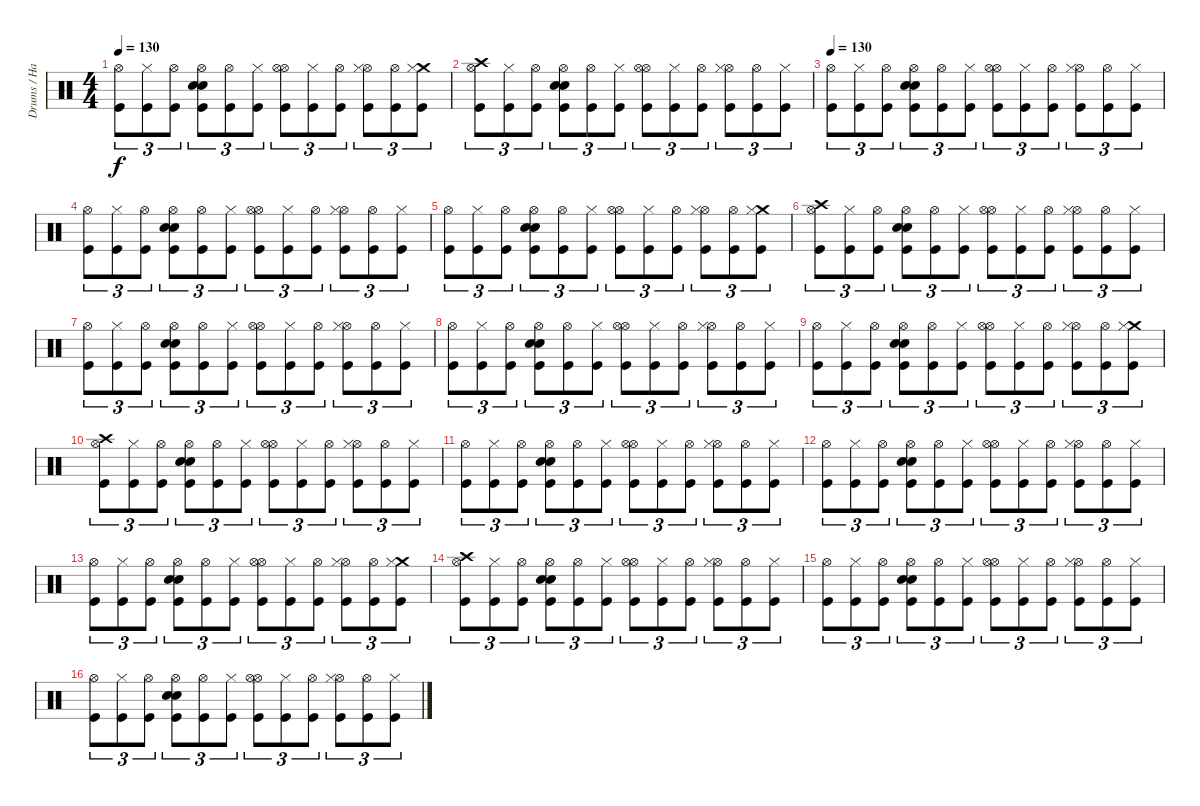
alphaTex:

\track ("Drums / Hammer of God" "Drums / Ha") {instrument percussion}
\staff {score}
\articulation defaults
\ts (4 4)
\tempo 130
\clef neutral
\ks c
("Hi-Hat (open)" "Kick (hit)").8{tu (3 2) dy f} ("Hi-Hat (closed)" "Kick (hit)").8{tu (3 2)} ("Hi-Hat (open)" "Kick (hit)").8{tu (3 2)} ("Snare (hit) 2" "Hi-Hat (open)" "Snare (hit) 2" "Kick (hit)").8{tu (3 2)} ("Hi-Hat (open)" "Kick (hit)").8{tu (3 2)} ("Hi-Hat (closed)" "Kick (hit)").8{tu (3 2)} ("Hi-Hat (open)" "Hi-Hat (open)" "Kick (hit)").8{tu (3 2)} ("Hi-Hat (closed)" "Kick (hit)").8{tu (3 2)} ("Hi-Hat (open)" "Kick (hit)").8{tu (3 2)} ("Hi-Hat (open)" "Hi-Hat (closed)" "Kick (hit)").8{tu (3 2)} ("Hi-Hat (open)" "Kick (hit)").8{tu (3 2)} ("Crash medium (hit)" "Hi-Hat (closed)" "Kick (hit)").8{tu (3 2)} |
("Crash high (hit)" "Hi-Hat (open)" "Kick (hit)").8{tu (3 2)} ("Hi-Hat (closed)" "Kick (hit)").8{tu (3 2)} ("Hi-Hat (open)" "Kick (hit)").8{tu (3 2)} ("Snare (hit) 2" "Hi-Hat (open)" "Snare (hit) 2" "Kick (hit)").8{tu (3 2)} ("Hi-Hat (open)" "Kick (hit)").8{tu (3 2)} ("Hi-Hat (closed)" "Kick (hit)").8{tu (3 2)} ("Hi-Hat (open)" "Hi-Hat (open)" "Kick (hit)").8{tu (3 2)} ("Hi-Hat (closed)" "Kick (hit)").8{tu (3 2)} ("Hi-Hat (open)" "Kick (hit)").8{tu (3 2)} ("Hi-Hat (open)" "Hi-Hat (closed)" "Kick (hit)").8{tu (3 2)} ("Hi-Hat (open)" "Kick (hit)").8{tu (3 2)} ("Hi-Hat (closed)" "Kick (hit)").8{tu (3 2)} |
\tempo 130
("Hi-Hat (open)" "Kick (hit)").8{tu (3 2)} ("Hi-Hat (closed)" "Kick (hit)").8{tu (3 2)} ("Hi-Hat (open)" "Kick (hit)").8{tu (3 2)} ("Snare (hit) 2" "Hi-Hat (open)" "Snare (hit) 2" "Kick (hit)").8{tu (3 2)} ("Hi-Hat (open)" "Kick (hit)").8{tu (3 2)} ("Hi-Hat (closed)" "Kick (hit)").8{tu (3 2)} ("Hi-Hat (open)" "Hi-Hat (open)" "Kick (hit)").8{tu (3 2)} ("Hi-Hat (closed)" "Kick (hit)").8{tu (3 2)} ("Hi-Hat (open)" "Kick (hit)").8{tu (3 2)} ("Hi-Hat (open)" "Hi-Hat (closed)" "Kick (hit)").8{tu (3 2)} ("Hi-Hat (open)" "Kick (hit)").8{tu (3 2)} ("Hi-Hat (closed)" "Kick (hit)").8{tu (3 2)} |
("Hi-Hat (open)" "Kick (hit)").8{tu (3 2)} ("Hi-Hat (closed)" "Kick (hit)").8{tu (3 2)} ("Hi-Hat (open)" "Kick (hit)").8{tu (3 2)} ("Snare (hit) 2" "Hi-Hat (open)" "Snare (hit) 2" "Kick (hit)").8{tu (3 2)} ("Hi-Hat (open)" "Kick (hit)").8{tu (3 2)} ("Hi-Hat (closed)" "Kick (hit)").8{tu (3 2)} ("Hi-Hat (open)" "Hi-Hat (open)" "Kick (hit)").8{tu (3 2)} ("Hi-Hat (closed)" "Kick (hit)").8{tu (3 2)} ("Hi-Hat (open)" "Kick (hit)").8{tu (3 2)} ("Hi-Hat (open)" "Hi-Hat (closed)" "Kick (hit)").8{tu (3 2)} ("Hi-Hat (open)" "Kick (hit)").8{tu (3 2)} ("Hi-Hat (closed)" "Kick (hit)").8{tu (3 2)} |
("Hi-Hat (open)" "Kick (hit)").8{tu (3 2)} ("Hi-Hat (closed)" "Kick (hit)").8{tu (3 2)} ("Hi-Hat (open)" "Kick (hit)").8{tu (3 2)} ("Snare (hit) 2" "Hi-Hat (open)" "Snare (hit) 2" "Kick (hit)").8{tu (3 2)} ("Hi-Hat (open)" "Kick (hit)").8{tu (3 2)} ("Hi-Hat (closed)" "Kick (hit)").8{tu (3 2)} ("Hi-Hat (open)" "Hi-Hat (open)" "Kick (hit)").8{tu (3 2)} ("Hi-Hat (closed)" "Kick (hit)").8{tu (3 2)} ("Hi-Hat (open)" "Kick (hit)").8{tu (3 2)} ("Hi-Hat (open)" "Hi-Hat (closed)" "Kick (hit)").8{tu (3 2)} ("Hi-Hat (open)" "Kick (hit)").8{tu (3 2)} ("Crash medium (hit)" "Hi-Hat (closed)" "Kick (hit)").8{tu (3 2)} |
("Crash high (hit)" "Hi-Hat (open)" "Kick (hit)").8{tu (3 2)} ("Hi-Hat (closed)" "Kick (hit)").8{tu (3 2)} ("Hi-Hat (open)" "Kick (hit)").8{tu (3 2)} ("Snare (hit) 2" "Hi-Hat (open)" "Snare (hit) 2" "Kick (hit)").8{tu (3 2)} ("Hi-Hat (open)" "Kick (hit)").8{tu (3 2)} ("Hi-Hat (closed)" "Kick (hit)").8{tu (3 2)} ("Hi-Hat (open)" "Hi-Hat (open)" "Kick (hit)").8{tu (3 2)} ("Hi-Hat (closed)" "Kick (hit)").8{tu (3 2)} ("Hi-Hat (open)" "Kick (hit)").8{tu (3 2)} ("Hi-Hat (open)" "Hi-Hat (closed)" "Kick (hit)").8{tu (3 2)} ("Hi-Hat (open)" "Kick (hit)").8{tu (3 2)} ("Hi-Hat (closed)" "Kick (hit)").8{tu (3 2)} |
("Hi-Hat (open)" "Kick (hit)").8{tu (3 2)} ("Hi-Hat (closed)" "Kick (hit)").8{tu (3 2)} ("Hi-Hat (open)" "Kick (hit)").8{tu (3 2)} ("Snare (hit) 2" "Hi-Hat (open)" "Snare (hit) 2" "Kick (hit)").8{tu (3 2)} ("Hi-Hat (open)" "Kick (hit)").8{tu (3 2)} ("Hi-Hat (closed)" "Kick (hit)").8{tu (3 2)} ("Hi-Hat (open)" "Hi-Hat (open)" "Kick (hit)").8{tu (3 2)} ("Hi-Hat (closed)" "Kick (hit)").8{tu (3 2)} ("Hi-Hat (open)" "Kick (hit)").8{tu (3 2)} ("Hi-Hat (open)" "Hi-Hat (closed)" "Kick (hit)").8{tu (3 2)} ("Hi-Hat (open)" "Kick (hit)").8{tu (3 2)} ("Hi-Hat (closed)" "Kick (hit)").8{tu (3 2)} |
("Hi-Hat (open)" "Kick (hit)").8{tu (3 2)} ("Hi-Hat (closed)" "Kick (hit)").8{tu (3 2)} ("Hi-Hat (open)" "Kick (hit)").8{tu (3 2)} ("Snare (hit) 2" "Hi-Hat (open)" "Snare (hit) 2" "Kick (hit)").8{tu (3 2)} ("Hi-Hat (open)" "Kick (hit)").8{tu (3 2)} ("Hi-Hat (closed)" "Kick (hit)").8{tu (3 2)} ("Hi-Hat (open)" "Hi-Hat (open)" "Kick (hit)").8{tu (3 2)} ("Hi-Hat (closed)" "Kick (hit)").8{tu (3 2)} ("Hi-Hat (open)" "Kick (hit)").8{tu (3 2)} ("Hi-Hat (open)" "Hi-Hat (closed)" "Kick (hit)").8{tu (3 2)} ("Hi-Hat (open)" "Kick (hit)").8{tu (3 2)} ("Hi-Hat (closed)" "Kick (hit)").8{tu (3 2)} |
("Hi-Hat (open)" "Kick (hit)").8{tu (3 2)} ("Hi-Hat (closed)" "Kick (hit)").8{tu (3 2)} ("Hi-Hat (open)" "Kick (hit)").8{tu (3 2)} ("Snare (hit) 2" "Hi-Hat (open)" "Snare (hit) 2" "Kick (hit)").8{tu (3 2)} ("Hi-Hat (open)" "Kick (hit)").8{tu (3 2)} ("Hi-Hat (closed)" "Kick (hit)").8{tu (3 2)} ("Hi-Hat (open)" "Hi-Hat (open)" "Kick (hit)").8{tu (3 2)} ("Hi-Hat (closed)" "Kick (hit)").8{tu (3 2)} ("Hi-Hat (open)" "Kick (hit)").8{tu (3 2)} ("Hi-Hat (open)" "Hi-Hat (closed)" "Kick (hit)").8{tu (3 2)} ("Hi-Hat (open)" "Kick (hit)").8{tu (3 2)} ("Crash medium (hit)" "Hi-Hat (closed)" "Kick (hit)").8{tu (3 2)} |
("Crash high (hit)" "Hi-Hat (open)" "Kick (hit)").8{tu (3 2)} ("Hi-Hat (closed)" "Kick (hit)").8{tu (3 2)} ("Hi-Hat (open)" "Kick (hit)").8{tu (3 2)} ("Snare (hit) 2" "Hi-Hat (open)" "Snare (hit) 2" "Kick (hit)").8{tu (3 2)} ("Hi-Hat (open)" "Kick (hit)").8{tu (3 2)} ("Hi-Hat (closed)" "Kick (hit)").8{tu (3 2)} ("Hi-Hat (open)" "Hi-Hat (open)" "Kick (hit)").8{tu (3 2)} ("Hi-Hat (closed)" "Kick (hit)").8{tu (3 2)} ("Hi-Hat (open)" "Kick (hit)").8{tu (3 2)} ("Hi-Hat (open)" "Hi-Hat (closed)" "Kick (hit)").8{tu (3 2)} ("Hi-Hat (open)" "Kick (hit)").8{tu (3 2)} ("Hi-Hat (closed)" "Kick (hit)").8{tu (3 2)} |
("Hi-Hat (open)" "Kick (hit)").8{tu (3 2)} ("Hi-Hat (closed)" "Kick (hit)").8{tu (3 2)} ("Hi-Hat (open)" "Kick (hit)").8{tu (3 2)} ("Snare (hit) 2" "Hi-Hat (open)" "Snare (hit) 2" "Kick (hit)").8{tu (3 2)} ("Hi-Hat (open)" "Kick (hit)").8{tu (3 2)} ("Hi-Hat (closed)" "Kick (hit)").8{tu (3 2)} ("Hi-Hat (open)" "Hi-Hat (open)" "Kick (hit)").8{tu (3 2)} ("Hi-Hat (closed)" "Kick (hit)").8{tu (3 2)} ("Hi-Hat (open)" "Kick (hit)").8{tu (3 2)} ("Hi-Hat (open)" "Hi-Hat (closed)" "Kick (hit)").8{tu (3 2)} ("Hi-Hat (open)" "Kick (hit)").8{tu (3 2)} ("Hi-Hat (closed)" "Kick (hit)").8{tu (3 2)} |
("Hi-Hat (open)" "Kick (hit)").8{tu (3 2)} ("Hi-Hat (closed)" "Kick (hit)").8{tu (3 2)} ("Hi-Hat (open)" "Kick (hit)").8{tu (3 2)} ("Snare (hit) 2" "Hi-Hat (open)" "Snare (hit) 2" "Kick (hit)").8{tu (3 2)} ("Hi-Hat (open)" "Kick (hit)").8{tu (3 2)} ("Hi-Hat (closed)" "Kick (hit)").8{tu (3 2)} ("Hi-Hat (open)" "Hi-Hat (open)" "Kick (hit)").8{tu (3 2)} ("Hi-Hat (closed)" "Kick (hit)").8{tu (3 2)} ("Hi-Hat (open)" "Kick (hit)").8{tu (3 2)} ("Hi-Hat (open)" "Hi-Hat (closed)" "Kick (hit)").8{tu (3 2)} ("Hi-Hat (open)" "Kick (hit)").8{tu (3 2)} ("Hi-Hat (closed)" "Kick (hit)").8{tu (3 2)} |
("Hi-Hat (open)" "Kick (hit)").8{tu (3 2)} ("Hi-Hat (closed)" "Kick (hit)").8{tu (3 2)} ("Hi-Hat (open)" "Kick (hit)").8{tu (3 2)} ("Snare (hit) 2" "Hi-Hat (open)" "Snare (hit) 2" "Kick (hit)").8{tu (3 2)} ("Hi-Hat (open)" "Kick (hit)").8{tu (3 2)} ("Hi-Hat (closed)" "Kick (hit)").8{tu (3 2)} ("Hi-Hat (open)" "Hi-Hat (open)" "Kick (hit)").8{tu (3 2)} ("Hi-Hat (closed)" "Kick (hit)").8{tu (3 2)} ("Hi-Hat (open)" "Kick (hit)").8{tu (3 2)} ("Hi-Hat (open)" "Hi-Hat (closed)" "Kick (hit)").8{tu (3 2)} ("Hi-Hat (open)" "Kick (hit)").8{tu (3 2)} ("Crash medium (hit)" "Hi-Hat (closed)" "Kick (hit)").8{tu (3 2)} |
("Crash high (hit)" "Hi-Hat (open)" "Kick (hit)").8{tu (3 2)} ("Hi-Hat (closed)" "Kick (hit)").8{tu (3 2)} ("Hi-Hat (open)" "Kick (hit)").8{tu (3 2)} ("Snare (hit) 2" "Hi-Hat (open)" "Snare (hit) 2" "Kick (hit)").8{tu (3 2)} ("Hi-Hat (open)" "Kick (hit)").8{tu (3 2)} ("Hi-Hat (closed)" "Kick (hit)").8{tu (3 2)} ("Hi-Hat (open)" "Hi-Hat (open)" "Kick (hit)").8{tu (3 2)} ("Hi-Hat (closed)" "Kick (hit)").8{tu (3 2)} ("Hi-Hat (open)" "Kick (hit)").8{tu (3 2)} ("Hi-Hat (open)" "Hi-Hat (closed)" "Kick (hit)").8{tu (3 2)} ("Hi-Hat (open)" "Kick (hit)").8{tu (3 2)} ("Hi-Hat (closed)" "Kick (hit)").8{tu (3 2)} |
("Hi-Hat (open)" "Kick (hit)").8{tu (3 2)} ("Hi-Hat (closed)" "Kick (hit)").8{tu (3 2)} ("Hi-Hat (open)" "Kick (hit)").8{tu (3 2)} ("Snare (hit) 2" "Hi-Hat (open)" "Snare (hit) 2" "Kick (hit)").8{tu (3 2)} ("Hi-Hat (open)" "Kick (hit)").8{tu (3 2)} ("Hi-Hat (closed)" "Kick (hit)").8{tu (3 2)} ("Hi-Hat (open)" "Hi-Hat (open)" "Kick (hit)").8{tu (3 2)} ("Hi-Hat (closed)" "Kick (hit)").8{tu (3 2)} ("Hi-Hat (open)" "Kick (hit)").8{tu (3 2)} ("Hi-Hat (open)" "Hi-Hat (closed)" "Kick (hit)").8{tu (3 2)} ("Hi-Hat (open)" "Kick (hit)").8{tu (3 2)} ("Hi-Hat (closed)" "Kick (hit)").8{tu (3 2)} |
("Hi-Hat (open)" "Kick (hit)").8{tu (3 2)} ("Hi-Hat (closed)" "Kick (hit)").8{tu (3 2)} ("Hi-Hat (open)" "Kick (hit)").8{tu (3 2)} ("Snare (hit) 2" "Hi-Hat (open)" "Snare (hit) 2" "Kick (hit)").8{tu (3 2)} ("Hi-Hat (open)" "Kick (hit)").8{tu (3 2)} ("Hi-Hat (closed)" "Kick (hit)").8{tu (3 2)} ("Hi-Hat (open)" "Hi-Hat (open)" "Kick (hit)").8{tu (3 2)} ("Hi-Hat (closed)" "Kick (hit)").8{tu (3 2)} ("Hi-Hat (open)" "Kick (hit)").8{tu (3 2)} ("Hi-Hat (open)" "Hi-Hat (closed)" "Kick (hit)").8{tu (3 2)} ("Hi-Hat (open)" "Kick (hit)").8{tu (3 2)} ("Hi-Hat (closed)" "Kick (hit)").8{tu (3 2)}
